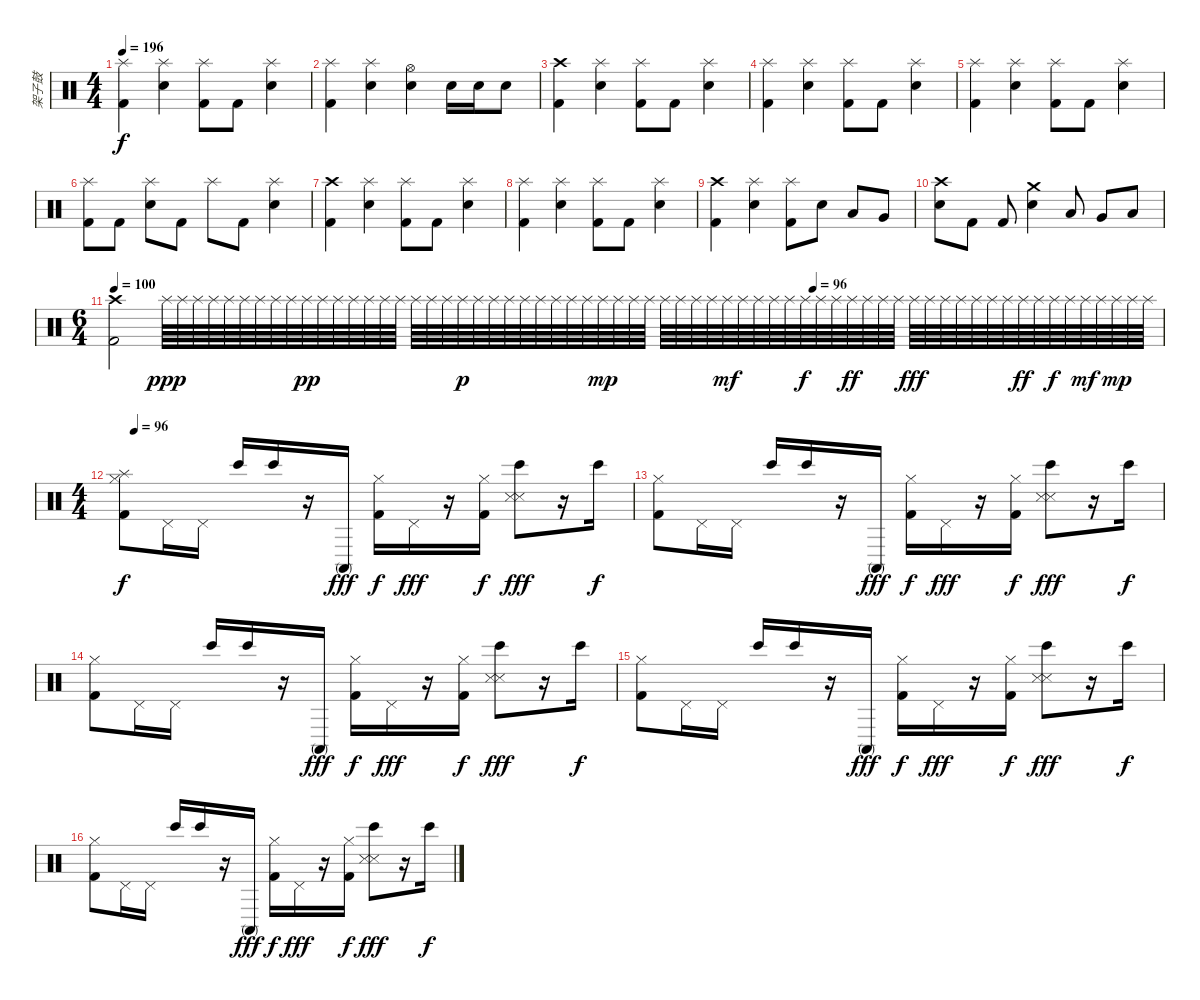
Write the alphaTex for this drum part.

\track ("架子鼓" "架子鼓") {instrument percussion}
\staff {score}
\articulation defaults
\ts (4 4)
\tempo 196
\clef neutral
\ks c
("Splash (hit)" "Kick (hit) 2").4{dy f} ("Splash (hit)" "Snare (hit) 2").4 ("Splash (hit)" "Kick (hit) 2").8 "Kick (hit) 2".8 ("Splash (hit)" "Snare (hit) 2").4 |
("Splash (hit)" "Kick (hit) 2").4 ("Splash (hit)" "Snare (hit) 2").4 ("Hi-Hat (open)" "Snare (hit) 2").4 "Snare (hit) 2".16 "Snare (hit) 2".16 "Snare (hit) 2".8 |
("Crash high (hit)" "Kick (hit) 2").4 ("Splash (hit)" "Snare (hit) 2").4 ("Splash (hit)" "Kick (hit) 2").8 "Kick (hit) 2".8 ("Splash (hit)" "Snare (hit) 2").4 |
("Splash (hit)" "Kick (hit) 2").4 ("Splash (hit)" "Snare (hit) 2").4 ("Splash (hit)" "Kick (hit) 2").8 "Kick (hit) 2".8 ("Splash (hit)" "Snare (hit) 2").4 |
("Splash (hit)" "Kick (hit) 2").4 ("Splash (hit)" "Snare (hit) 2").4 ("Splash (hit)" "Kick (hit) 2").8 "Kick (hit) 2".8 ("Splash (hit)" "Snare (hit) 2").4 |
("Splash (hit)" "Kick (hit) 2").8 "Kick (hit) 2".8 ("Splash (hit)" "Snare (hit) 2").8 "Kick (hit) 2".8 "Splash (hit)".8 "Kick (hit) 2".8 ("Splash (hit)" "Snare (hit) 2").4 |
("Crash high (hit)" "Kick (hit) 2").4 ("Splash (hit)" "Snare (hit) 2").4 ("Splash (hit)" "Kick (hit) 2").8 "Kick (hit) 2".8 ("Splash (hit)" "Snare (hit) 2").4 |
("Splash (hit)" "Kick (hit) 2").4 ("Splash (hit)" "Snare (hit) 2").4 ("Splash (hit)" "Kick (hit) 2").8 "Kick (hit) 2".8 ("Splash (hit)" "Snare (hit) 2").4 |
("Crash high (hit)" "Kick (hit) 2").4 ("Splash (hit)" "Snare (hit) 2").4 ("Splash (hit)" "Kick (hit) 2").8 "Snare (hit) 2".8 "Low Tom (hit)".8 "Very Low Tom (hit)".8 |
("Crash high (hit)" "Snare (hit) 2").8 "Kick (hit) 2".8 "Kick (hit) 2".8 ("Crash medium (hit)" "Snare (hit) 2").4 "Low Tom (hit)".8 "Very Low Tom (hit)".8 "Low Floor Tom (hit)".8 |
\ts (6 4)
\tempo 84
\tempo (96 0.6666666666666666)
\tempo 100
("Crash high (hit)" "Kick (hit) 2").2 "Splash (hit)".64{dy ppp} "Splash (hit)".64 "Splash (hit)".64 "Splash (hit)".64 "Splash (hit)".64 "Splash (hit)".64 "Splash (hit)".64 "Splash (hit)".64 "Splash (hit)".64 "Splash (hit)".64{dy pp} "Splash (hit)".64 "Splash (hit)".64 "Splash (hit)".64 "Splash (hit)".64 "Splash (hit)".64 "Splash (hit)".64 "Splash (hit)".64 "Splash (hit)".64 "Splash (hit)".64 "Splash (hit)".64{dy p} "Splash (hit)".64 "Splash (hit)".64 "Splash (hit)".64 "Splash (hit)".64 "Splash (hit)".64 "Splash (hit)".64 "Splash (hit)".64 "Splash (hit)".64 "Splash (hit)".64{dy mp} "Splash (hit)".64 "Splash (hit)".64 "Splash (hit)".64 "Splash (hit)".64 "Splash (hit)".64 "Splash (hit)".64 "Splash (hit)".64 "Splash (hit)".64{dy mf} "Splash (hit)".64 "Splash (hit)".64 "Splash (hit)".64 "Splash (hit)".64 "Splash (hit)".64{dy f} "Splash (hit)".64 "Splash (hit)".64 "Splash (hit)".64{dy ff} "Splash (hit)".64 "Splash (hit)".64 "Splash (hit)".64 "Splash (hit)".64{dy fff} "Splash (hit)".64 "Splash (hit)".64 "Splash (hit)".64 "Splash (hit)".64 "Splash (hit)".64 "Splash (hit)".64 "Splash (hit)".64{dy ff} "Splash (hit)".64 "Splash (hit)".64{dy f} "Splash (hit)".64 "Splash (hit)".64{dy mf} "Splash (hit)".64 "Splash (hit)".64{dy mp} "Splash (hit)".64 "Splash (hit)".64 |
\ts (4 4)
\tempo (96 0.03125)
("Splash (hit)" "Kick (hit) 2" "Hi-Hat (closed)").8{dy f} "Pedal Hi-Hat (hit)".16 "Pedal Hi-Hat (hit)".16 "Bongo High (hit)".16 "Bongo High (hit)".16 r.16 "Conga high (mute)".16{dy fff} ("Kick (hit) 2" "Hi-Hat (closed)").16{dy f} "Pedal Hi-Hat (hit)".16{dy fff} r.16 ("Kick (hit) 2" "Hi-Hat (closed)").16{dy f} ("Bongo High (hit)" "Snare (side stick) 3" "Metronome (hit)").8{dy fff} r.16 "Bongo High (hit)".16{dy f} |
("Kick (hit) 2" "Hi-Hat (closed)").8 "Pedal Hi-Hat (hit)".16 "Pedal Hi-Hat (hit)".16 "Bongo High (hit)".16 "Bongo High (hit)".16 r.16 "Conga high (mute)".16{dy fff} ("Kick (hit) 2" "Hi-Hat (closed)").16{dy f} "Pedal Hi-Hat (hit)".16{dy fff} r.16 ("Kick (hit) 2" "Hi-Hat (closed)").16{dy f} ("Bongo High (hit)" "Snare (side stick) 3" "Metronome (hit)").8{dy fff} r.16 "Bongo High (hit)".16{dy f} |
("Kick (hit) 2" "Hi-Hat (closed)").8 "Pedal Hi-Hat (hit)".16 "Pedal Hi-Hat (hit)".16 "Bongo High (hit)".16 "Bongo High (hit)".16 r.16 "Conga high (mute)".16{dy fff} ("Kick (hit) 2" "Hi-Hat (closed)").16{dy f} "Pedal Hi-Hat (hit)".16{dy fff} r.16 ("Kick (hit) 2" "Hi-Hat (closed)").16{dy f} ("Bongo High (hit)" "Snare (side stick) 3" "Metronome (hit)").8{dy fff} r.16 "Bongo High (hit)".16{dy f} |
("Kick (hit) 2" "Hi-Hat (closed)").8 "Pedal Hi-Hat (hit)".16 "Pedal Hi-Hat (hit)".16 "Bongo High (hit)".16 "Bongo High (hit)".16 r.16 "Conga high (mute)".16{dy fff} ("Kick (hit) 2" "Hi-Hat (closed)").16{dy f} "Pedal Hi-Hat (hit)".16{dy fff} r.16 ("Kick (hit) 2" "Hi-Hat (closed)").16{dy f} ("Bongo High (hit)" "Snare (side stick) 3" "Metronome (hit)").8{dy fff} r.16 "Bongo High (hit)".16{dy f} |
("Kick (hit) 2" "Hi-Hat (closed)").8 "Pedal Hi-Hat (hit)".16 "Pedal Hi-Hat (hit)".16 "Bongo High (hit)".16 "Bongo High (hit)".16 r.16 "Conga high (mute)".16{dy fff} ("Kick (hit) 2" "Hi-Hat (closed)").16{dy f} "Pedal Hi-Hat (hit)".16{dy fff} r.16 ("Kick (hit) 2" "Hi-Hat (closed)").16{dy f} ("Bongo High (hit)" "Snare (side stick) 3" "Metronome (hit)").8{dy fff} r.16 "Bongo High (hit)".16{dy f}
